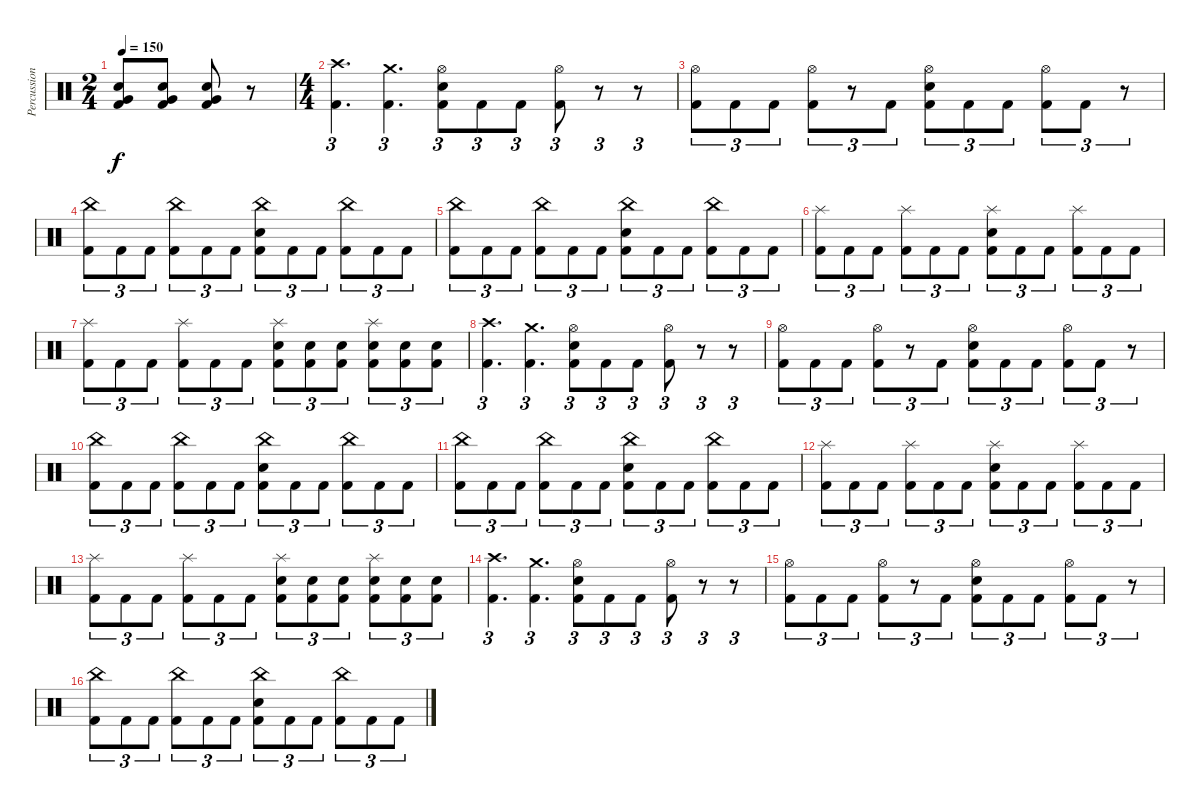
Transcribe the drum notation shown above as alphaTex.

\track ("Percussion" "Percussion") {instrument percussion}
\staff {score}
\articulation defaults
\ts (2 4)
\tempo 150
\clef neutral
\ks c
("Very Low Tom (hit)" "Snare (hit) 2" "Kick (hit) 2").8{dy f} ("Very Low Tom (hit)" "Snare (hit) 2" "Kick (hit) 2").8 ("Very Low Tom (hit)" "Snare (hit) 2" "Kick (hit) 2").8 r.8 |
\ts (4 4)
("Crash high (hit)" "Kick (hit) 2").4{d tu (3 2)} ("Crash medium (hit)" "Kick (hit) 2").4{d tu (3 2)} ("Hi-Hat (open)" "Snare (hit) 2" "Kick (hit) 2").8{tu (3 2)} "Kick (hit) 2".8{tu (3 2)} "Kick (hit) 2".8{tu (3 2)} ("Hi-Hat (open)" "Kick (hit) 2").8{tu (3 2)} r.8{tu (3 2)} r.8{tu (3 2)} |
("Hi-Hat (open)" "Kick (hit) 2").8{tu (3 2)} "Kick (hit) 2".8{tu (3 2)} "Kick (hit) 2".8{tu (3 2)} ("Hi-Hat (open)" "Kick (hit) 2").8{tu (3 2)} r.8{tu (3 2)} "Kick (hit) 2".8{tu (3 2)} ("Hi-Hat (open)" "Snare (hit) 2" "Kick (hit) 2").8{tu (3 2)} "Kick (hit) 2".8{tu (3 2)} "Kick (hit) 2".8{tu (3 2)} ("Hi-Hat (open)" "Kick (hit) 2").8{tu (3 2)} "Kick (hit) 2".8{tu (3 2)} r.8{tu (3 2)} |
("China (hit)" "Kick (hit) 2").8{tu (3 2)} "Kick (hit) 2".8{tu (3 2)} "Kick (hit) 2".8{tu (3 2)} ("China (hit)" "Kick (hit) 2").8{tu (3 2)} "Kick (hit) 2".8{tu (3 2)} "Kick (hit) 2".8{tu (3 2)} ("China (hit)" "Snare (hit) 2" "Kick (hit) 2").8{tu (3 2)} "Kick (hit) 2".8{tu (3 2)} "Kick (hit) 2".8{tu (3 2)} ("China (hit)" "Kick (hit) 2").8{tu (3 2)} "Kick (hit) 2".8{tu (3 2)} "Kick (hit) 2".8{tu (3 2)} |
("China (hit)" "Kick (hit) 2").8{tu (3 2)} "Kick (hit) 2".8{tu (3 2)} "Kick (hit) 2".8{tu (3 2)} ("China (hit)" "Kick (hit) 2").8{tu (3 2)} "Kick (hit) 2".8{tu (3 2)} "Kick (hit) 2".8{tu (3 2)} ("China (hit)" "Snare (hit) 2" "Kick (hit) 2").8{tu (3 2)} "Kick (hit) 2".8{tu (3 2)} "Kick (hit) 2".8{tu (3 2)} ("China (hit)" "Kick (hit) 2").8{tu (3 2)} "Kick (hit) 2".8{tu (3 2)} "Kick (hit) 2".8{tu (3 2)} |
("Splash (hit)" "Kick (hit) 2").8{tu (3 2)} "Kick (hit) 2".8{tu (3 2)} "Kick (hit) 2".8{tu (3 2)} ("Splash (hit)" "Kick (hit) 2").8{tu (3 2)} "Kick (hit) 2".8{tu (3 2)} "Kick (hit) 2".8{tu (3 2)} ("Splash (hit)" "Snare (hit) 2" "Kick (hit) 2").8{tu (3 2)} "Kick (hit) 2".8{tu (3 2)} "Kick (hit) 2".8{tu (3 2)} ("Splash (hit)" "Kick (hit) 2").8{tu (3 2)} "Kick (hit) 2".8{tu (3 2)} "Kick (hit) 2".8{tu (3 2)} |
("Splash (hit)" "Kick (hit) 2").8{tu (3 2)} "Kick (hit) 2".8{tu (3 2)} "Kick (hit) 2".8{tu (3 2)} ("Splash (hit)" "Kick (hit) 2").8{tu (3 2)} "Kick (hit) 2".8{tu (3 2)} "Kick (hit) 2".8{tu (3 2)} ("Splash (hit)" "Snare (hit) 2" "Kick (hit) 2").8{tu (3 2)} ("Snare (hit) 2" "Kick (hit) 2").8{tu (3 2)} ("Snare (hit) 2" "Kick (hit) 2").8{tu (3 2)} ("Splash (hit)" "Snare (hit) 2" "Kick (hit) 2").8{tu (3 2)} ("Snare (hit) 2" "Kick (hit) 2").8{tu (3 2)} ("Snare (hit) 2" "Kick (hit) 2").8{tu (3 2)} |
("Crash high (hit)" "Kick (hit) 2").4{d tu (3 2)} ("Crash medium (hit)" "Kick (hit) 2").4{d tu (3 2)} ("Hi-Hat (open)" "Snare (hit) 2" "Kick (hit) 2").8{tu (3 2)} "Kick (hit) 2".8{tu (3 2)} "Kick (hit) 2".8{tu (3 2)} ("Hi-Hat (open)" "Kick (hit) 2").8{tu (3 2)} r.8{tu (3 2)} r.8{tu (3 2)} |
("Hi-Hat (open)" "Kick (hit) 2").8{tu (3 2)} "Kick (hit) 2".8{tu (3 2)} "Kick (hit) 2".8{tu (3 2)} ("Hi-Hat (open)" "Kick (hit) 2").8{tu (3 2)} r.8{tu (3 2)} "Kick (hit) 2".8{tu (3 2)} ("Hi-Hat (open)" "Snare (hit) 2" "Kick (hit) 2").8{tu (3 2)} "Kick (hit) 2".8{tu (3 2)} "Kick (hit) 2".8{tu (3 2)} ("Hi-Hat (open)" "Kick (hit) 2").8{tu (3 2)} "Kick (hit) 2".8{tu (3 2)} r.8{tu (3 2)} |
("China (hit)" "Kick (hit) 2").8{tu (3 2)} "Kick (hit) 2".8{tu (3 2)} "Kick (hit) 2".8{tu (3 2)} ("China (hit)" "Kick (hit) 2").8{tu (3 2)} "Kick (hit) 2".8{tu (3 2)} "Kick (hit) 2".8{tu (3 2)} ("China (hit)" "Snare (hit) 2" "Kick (hit) 2").8{tu (3 2)} "Kick (hit) 2".8{tu (3 2)} "Kick (hit) 2".8{tu (3 2)} ("China (hit)" "Kick (hit) 2").8{tu (3 2)} "Kick (hit) 2".8{tu (3 2)} "Kick (hit) 2".8{tu (3 2)} |
("China (hit)" "Kick (hit) 2").8{tu (3 2)} "Kick (hit) 2".8{tu (3 2)} "Kick (hit) 2".8{tu (3 2)} ("China (hit)" "Kick (hit) 2").8{tu (3 2)} "Kick (hit) 2".8{tu (3 2)} "Kick (hit) 2".8{tu (3 2)} ("China (hit)" "Snare (hit) 2" "Kick (hit) 2").8{tu (3 2)} "Kick (hit) 2".8{tu (3 2)} "Kick (hit) 2".8{tu (3 2)} ("China (hit)" "Kick (hit) 2").8{tu (3 2)} "Kick (hit) 2".8{tu (3 2)} "Kick (hit) 2".8{tu (3 2)} |
("Splash (hit)" "Kick (hit) 2").8{tu (3 2)} "Kick (hit) 2".8{tu (3 2)} "Kick (hit) 2".8{tu (3 2)} ("Splash (hit)" "Kick (hit) 2").8{tu (3 2)} "Kick (hit) 2".8{tu (3 2)} "Kick (hit) 2".8{tu (3 2)} ("Splash (hit)" "Snare (hit) 2" "Kick (hit) 2").8{tu (3 2)} "Kick (hit) 2".8{tu (3 2)} "Kick (hit) 2".8{tu (3 2)} ("Splash (hit)" "Kick (hit) 2").8{tu (3 2)} "Kick (hit) 2".8{tu (3 2)} "Kick (hit) 2".8{tu (3 2)} |
("Splash (hit)" "Kick (hit) 2").8{tu (3 2)} "Kick (hit) 2".8{tu (3 2)} "Kick (hit) 2".8{tu (3 2)} ("Splash (hit)" "Kick (hit) 2").8{tu (3 2)} "Kick (hit) 2".8{tu (3 2)} "Kick (hit) 2".8{tu (3 2)} ("Splash (hit)" "Snare (hit) 2" "Kick (hit) 2").8{tu (3 2)} ("Snare (hit) 2" "Kick (hit) 2").8{tu (3 2)} ("Snare (hit) 2" "Kick (hit) 2").8{tu (3 2)} ("Splash (hit)" "Snare (hit) 2" "Kick (hit) 2").8{tu (3 2)} ("Snare (hit) 2" "Kick (hit) 2").8{tu (3 2)} ("Snare (hit) 2" "Kick (hit) 2").8{tu (3 2)} |
("Crash high (hit)" "Kick (hit) 2").4{d tu (3 2)} ("Crash medium (hit)" "Kick (hit) 2").4{d tu (3 2)} ("Hi-Hat (open)" "Snare (hit) 2" "Kick (hit) 2").8{tu (3 2)} "Kick (hit) 2".8{tu (3 2)} "Kick (hit) 2".8{tu (3 2)} ("Hi-Hat (open)" "Kick (hit) 2").8{tu (3 2)} r.8{tu (3 2)} r.8{tu (3 2)} |
("Hi-Hat (open)" "Kick (hit) 2").8{tu (3 2)} "Kick (hit) 2".8{tu (3 2)} "Kick (hit) 2".8{tu (3 2)} ("Hi-Hat (open)" "Kick (hit) 2").8{tu (3 2)} r.8{tu (3 2)} "Kick (hit) 2".8{tu (3 2)} ("Hi-Hat (open)" "Snare (hit) 2" "Kick (hit) 2").8{tu (3 2)} "Kick (hit) 2".8{tu (3 2)} "Kick (hit) 2".8{tu (3 2)} ("Hi-Hat (open)" "Kick (hit) 2").8{tu (3 2)} "Kick (hit) 2".8{tu (3 2)} r.8{tu (3 2)} |
("China (hit)" "Kick (hit) 2").8{tu (3 2)} "Kick (hit) 2".8{tu (3 2)} "Kick (hit) 2".8{tu (3 2)} ("China (hit)" "Kick (hit) 2").8{tu (3 2)} "Kick (hit) 2".8{tu (3 2)} "Kick (hit) 2".8{tu (3 2)} ("China (hit)" "Snare (hit) 2" "Kick (hit) 2").8{tu (3 2)} "Kick (hit) 2".8{tu (3 2)} "Kick (hit) 2".8{tu (3 2)} ("China (hit)" "Kick (hit) 2").8{tu (3 2)} "Kick (hit) 2".8{tu (3 2)} "Kick (hit) 2".8{tu (3 2)}
